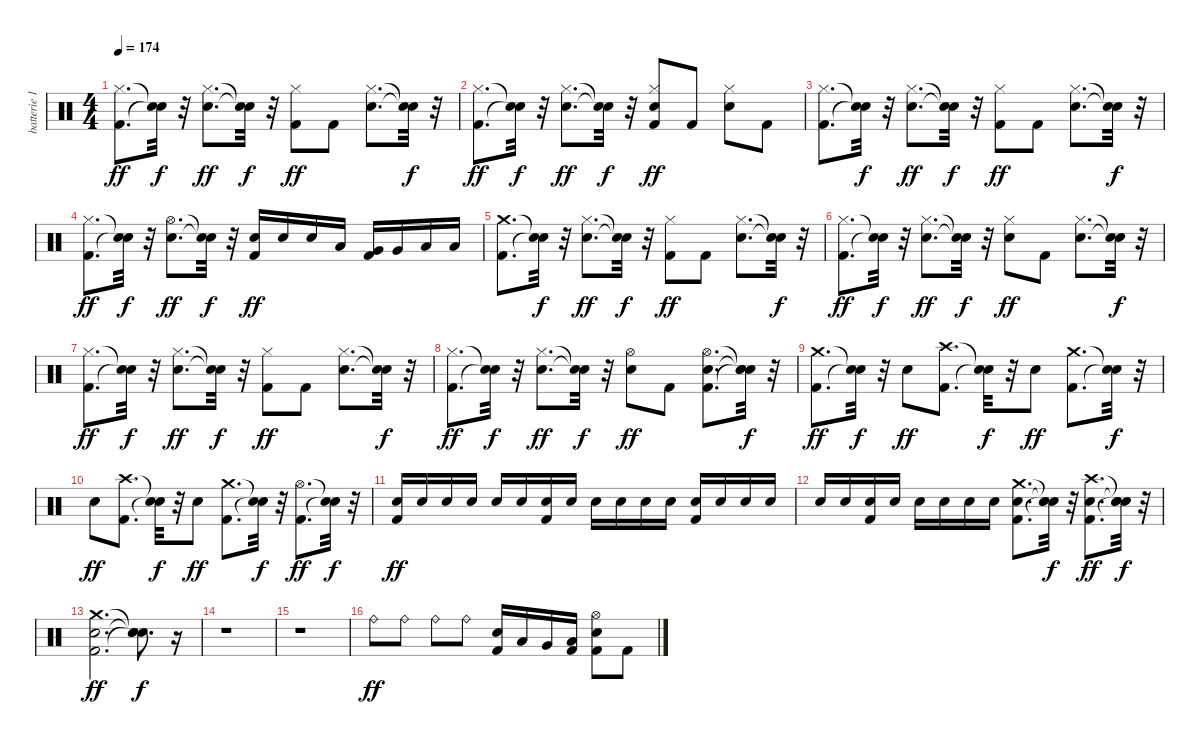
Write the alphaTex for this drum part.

\track ("batterie 1" "batterie 1") {instrument percussion}
\staff {score}
\articulation defaults
\ts (4 4)
\tempo 174
\clef neutral
\ks c
("Kick (hit) 2" "Hi-Hat (closed)").8{d dy ff} ("Snare (hit)"{t} "Snare (hit)"{t}).32{dy f} r.32 ("Electric Snare (hit)" "Hi-Hat (closed)").8{d dy ff} ("Snare (hit)"{t} "Snare (hit)"{t}).32{dy f} r.32 ("Kick (hit) 2" "Hi-Hat (closed)").8{dy ff} "Kick (hit) 2".8 ("Electric Snare (hit)" "Hi-Hat (closed)").8{d} ("Snare (hit)"{t} "Snare (hit)"{t}).32{dy f} r.32 |
("Kick (hit) 2" "Hi-Hat (closed)").8{d dy ff} ("Snare (hit)"{t} "Snare (hit)"{t}).32{dy f} r.32 ("Electric Snare (hit)" "Hi-Hat (closed)").8{d dy ff} ("Snare (hit)"{t} "Snare (hit)"{t}).32{dy f} r.32 ("Kick (hit) 2" "Electric Snare (hit)" "Hi-Hat (closed)").8{dy ff} "Kick (hit) 2".8 ("Electric Snare (hit)" "Hi-Hat (closed)").8 "Kick (hit) 2".8 |
("Kick (hit) 2" "Hi-Hat (closed)").8{d} ("Snare (hit)"{t} "Snare (hit)"{t}).32{dy f} r.32 ("Electric Snare (hit)" "Hi-Hat (closed)").8{d dy ff} ("Snare (hit)"{t} "Snare (hit)"{t}).32{dy f} r.32 ("Kick (hit) 2" "Hi-Hat (closed)").8{dy ff} "Kick (hit) 2".8 ("Electric Snare (hit)" "Hi-Hat (closed)").8{d} ("Snare (hit)"{t} "Snare (hit)"{t}).32{dy f} r.32 |
("Kick (hit) 2" "Hi-Hat (closed)").8{d dy ff} ("Snare (hit)"{t} "Snare (hit)"{t}).32{dy f} r.32 ("Electric Snare (hit)" "Hi-Hat (open)").8{d dy ff} ("Snare (hit)"{t} "Snare (hit)"{t}).32{dy f} r.32 ("Kick (hit) 2" "Electric Snare (hit)").16{dy ff} "Electric Snare (hit)".16 "Electric Snare (hit)".16 "Low Tom (hit)".16 ("Kick (hit) 2" "Very Low Tom (hit)").16 "Very Low Tom (hit)".16 "Low Floor Tom (hit)".16 "Low Floor Tom (hit)".16 |
("Kick (hit) 2" "Crash medium (hit)").8{d} ("Snare (hit)"{t} "Snare (hit)"{t}).32{dy f} r.32 ("Electric Snare (hit)" "Hi-Hat (closed)").8{d dy ff} ("Snare (hit)"{t} "Snare (hit)"{t}).32{dy f} r.32 ("Kick (hit) 2" "Hi-Hat (closed)").8{dy ff} "Kick (hit) 2".8 ("Electric Snare (hit)" "Hi-Hat (closed)").8{d} ("Snare (hit)"{t} "Snare (hit)"{t}).32{dy f} r.32 |
("Kick (hit) 2" "Hi-Hat (closed)").8{d dy ff} ("Snare (hit)"{t} "Snare (hit)"{t}).32{dy f} r.32 ("Electric Snare (hit)" "Hi-Hat (closed)").8{d dy ff} ("Snare (hit)"{t} "Snare (hit)"{t}).32{dy f} r.32 ("Electric Snare (hit)" "Hi-Hat (closed)").8{dy ff} "Kick (hit) 2".8 ("Electric Snare (hit)" "Hi-Hat (closed)").8{d} ("Snare (hit)"{t} "Snare (hit)"{t}).32{dy f} r.32 |
("Kick (hit) 2" "Hi-Hat (closed)").8{d dy ff} ("Snare (hit)"{t} "Snare (hit)"{t}).32{dy f} r.32 ("Electric Snare (hit)" "Hi-Hat (closed)").8{d dy ff} ("Snare (hit)"{t} "Snare (hit)"{t}).32{dy f} r.32 ("Kick (hit) 2" "Hi-Hat (closed)").8{dy ff} "Kick (hit) 2".8 ("Electric Snare (hit)" "Hi-Hat (closed)").8{d} ("Snare (hit)"{t} "Snare (hit)"{t}).32{dy f} r.32 |
("Kick (hit) 2" "Hi-Hat (closed)").8{d dy ff} ("Snare (hit)"{t} "Snare (hit)"{t}).32{dy f} r.32 ("Electric Snare (hit)" "Hi-Hat (closed)").8{d dy ff} ("Snare (hit)"{t} "Snare (hit)"{t}).32{dy f} r.32 ("Electric Snare (hit)" "Hi-Hat (open)").8{dy ff} "Kick (hit) 2".8 ("Kick (hit) 2" "Electric Snare (hit)" "Hi-Hat (open)").8{d} ("Snare (hit)"{t} "Snare (hit)"{t} "Snare (hit)"{t}).32{dy f} r.32 |
("Kick (hit) 2" "Crash medium (hit)").8{d dy ff} ("Snare (hit)"{t} "Snare (hit)"{t}).32{dy f} r.32 "Electric Snare (hit)".8{dy ff} ("Kick (hit) 2" "Crash high (hit)").8{d} ("Snare (hit)"{t} "Snare (hit)"{t}).32{dy f} r.32 "Electric Snare (hit)".8{dy ff} ("Kick (hit) 2" "Crash medium (hit)").8{d} ("Snare (hit)"{t} "Snare (hit)"{t}).32{dy f} r.32 |
"Electric Snare (hit)".8{dy ff} ("Kick (hit) 2" "Crash high (hit)").8{d} ("Snare (hit)"{t} "Snare (hit)"{t}).32{dy f} r.32 "Electric Snare (hit)".8{dy ff} ("Kick (hit) 2" "Crash medium (hit)").8{d} ("Snare (hit)"{t} "Snare (hit)"{t}).32{dy f} r.32 ("Kick (hit) 2" "Hi-Hat (open)").8{d dy ff} ("Snare (hit)"{t} "Snare (hit)"{t}).32{dy f} r.32 |
("Kick (hit) 2" "Electric Snare (hit)").16{dy ff} "Electric Snare (hit)".16 "Electric Snare (hit)".16 "Electric Snare (hit)".16 "Electric Snare (hit)".16 "Electric Snare (hit)".16 ("Kick (hit) 2" "Electric Snare (hit)").16 "Electric Snare (hit)".16 "Electric Snare (hit)".16 "Electric Snare (hit)".16 "Electric Snare (hit)".16 "Electric Snare (hit)".16 ("Kick (hit) 2" "Electric Snare (hit)").16 "Electric Snare (hit)".16 "Electric Snare (hit)".16 "Electric Snare (hit)".16 |
"Electric Snare (hit)".16 "Electric Snare (hit)".16 ("Kick (hit) 2" "Electric Snare (hit)").16 "Electric Snare (hit)".16 "Electric Snare (hit)".16 "Electric Snare (hit)".16 "Electric Snare (hit)".16 "Electric Snare (hit)".16 ("Kick (hit) 2" "Electric Snare (hit)" "Crash medium (hit)").8{d} ("Snare (hit)"{t} "Snare (hit)"{t} "Snare (hit)"{t}).32{dy f} r.32 ("Kick (hit) 2" "Electric Snare (hit)" "Crash high (hit)").8{d dy ff} ("Snare (hit)"{t} "Snare (hit)"{t} "Snare (hit)"{t}).32{dy f} r.32 |
("Kick (hit) 2" "Electric Snare (hit)" "Crash medium (hit)").2{d dy ff} ("Snare (hit)"{t} "Snare (hit)"{t} "Snare (hit)"{t}).8{d dy f} r.16 |
r.1 |
r.1 |
"Ride (bell)".8{dy ff} "Ride (bell)".8 "Ride (bell)".8 "Ride (bell)".8 ("Kick (hit) 2" "Electric Snare (hit)").16 "Low Tom (hit)".16 "Very Low Tom (hit)".16 ("Kick (hit) 2" "Low Floor Tom (hit)").16 ("Kick (hit) 2" "Electric Snare (hit)" "Hi-Hat (open)").8 "Kick (hit) 2".8
